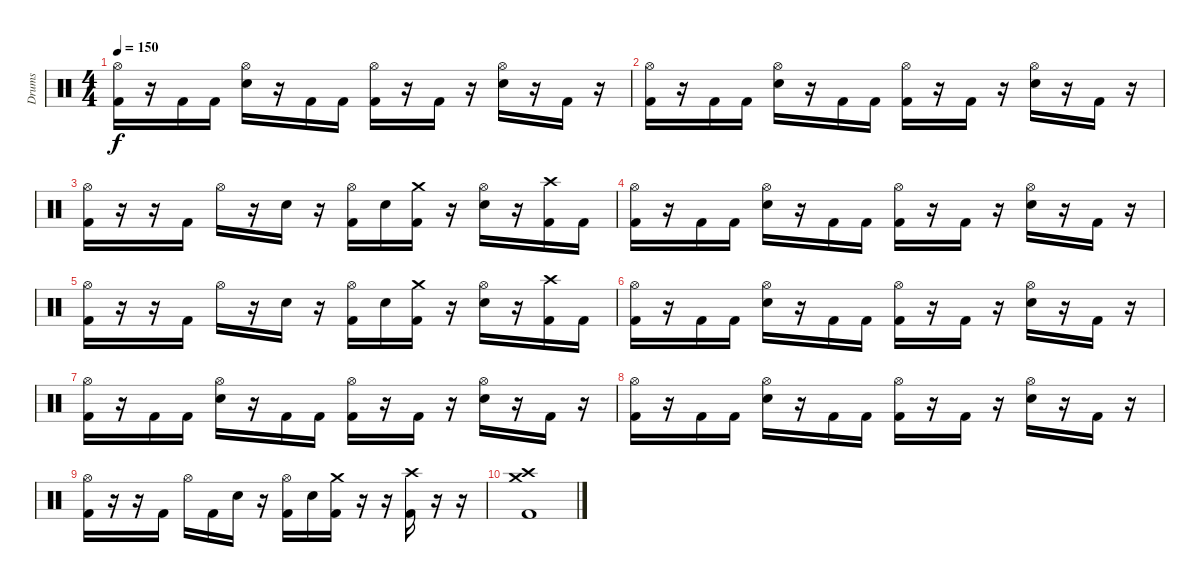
\track ("Drums" "Drums") {instrument percussion}
\staff {score}
\articulation defaults
\ts (4 4)
\tempo 150
\clef neutral
\ks c
("Hi-Hat (open)" "Kick (hit) 2").16{dy f} r.16 "Kick (hit) 2".16 "Kick (hit) 2".16 ("Hi-Hat (open)" "Snare (hit) 2").16 r.16 "Kick (hit) 2".16 "Kick (hit) 2".16 ("Hi-Hat (open)" "Kick (hit) 2").16 r.16 "Kick (hit) 2".16 r.16 ("Hi-Hat (open)" "Snare (hit) 2").16 r.16 "Kick (hit) 2".16 r.16 |
("Hi-Hat (open)" "Kick (hit) 2").16 r.16 "Kick (hit) 2".16 "Kick (hit) 2".16 ("Hi-Hat (open)" "Snare (hit) 2").16 r.16 "Kick (hit) 2".16 "Kick (hit) 2".16 ("Hi-Hat (open)" "Kick (hit) 2").16 r.16 "Kick (hit) 2".16 r.16 ("Hi-Hat (open)" "Snare (hit) 2").16 r.16 "Kick (hit) 2".16 r.16 |
("Hi-Hat (open)" "Kick (hit) 2").16 r.16 r.16 "Kick (hit) 2".16 "Hi-Hat (open)".16 r.16 "Snare (hit) 2".16 r.16 ("Hi-Hat (open)" "Kick (hit) 2").16 "Snare (hit) 2".16 ("Crash medium (hit)" "Kick (hit) 2").16 r.16 ("Hi-Hat (open)" "Snare (hit) 2").16 r.16 ("Crash high (hit)" "Kick (hit) 2").16 "Kick (hit) 2".16 |
("Hi-Hat (open)" "Kick (hit) 2").16 r.16 "Kick (hit) 2".16 "Kick (hit) 2".16 ("Hi-Hat (open)" "Snare (hit) 2").16 r.16 "Kick (hit) 2".16 "Kick (hit) 2".16 ("Hi-Hat (open)" "Kick (hit) 2").16 r.16 "Kick (hit) 2".16 r.16 ("Hi-Hat (open)" "Snare (hit) 2").16 r.16 "Kick (hit) 2".16 r.16 |
("Hi-Hat (open)" "Kick (hit) 2").16 r.16 r.16 "Kick (hit) 2".16 "Hi-Hat (open)".16 r.16 "Snare (hit) 2".16 r.16 ("Hi-Hat (open)" "Kick (hit) 2").16 "Snare (hit) 2".16 ("Crash medium (hit)" "Kick (hit) 2").16 r.16 ("Hi-Hat (open)" "Snare (hit) 2").16 r.16 ("Crash high (hit)" "Kick (hit) 2").16 "Kick (hit) 2".16 |
("Hi-Hat (open)" "Kick (hit) 2").16 r.16 "Kick (hit) 2".16 "Kick (hit) 2".16 ("Hi-Hat (open)" "Snare (hit) 2").16 r.16 "Kick (hit) 2".16 "Kick (hit) 2".16 ("Hi-Hat (open)" "Kick (hit) 2").16 r.16 "Kick (hit) 2".16 r.16 ("Hi-Hat (open)" "Snare (hit) 2").16 r.16 "Kick (hit) 2".16 r.16 |
("Hi-Hat (open)" "Kick (hit) 2").16 r.16 "Kick (hit) 2".16 "Kick (hit) 2".16 ("Hi-Hat (open)" "Snare (hit) 2").16 r.16 "Kick (hit) 2".16 "Kick (hit) 2".16 ("Hi-Hat (open)" "Kick (hit) 2").16 r.16 "Kick (hit) 2".16 r.16 ("Hi-Hat (open)" "Snare (hit) 2").16 r.16 "Kick (hit) 2".16 r.16 |
("Hi-Hat (open)" "Kick (hit) 2").16 r.16 "Kick (hit) 2".16 "Kick (hit) 2".16 ("Hi-Hat (open)" "Snare (hit) 2").16 r.16 "Kick (hit) 2".16 "Kick (hit) 2".16 ("Hi-Hat (open)" "Kick (hit) 2").16 r.16 "Kick (hit) 2".16 r.16 ("Hi-Hat (open)" "Snare (hit) 2").16 r.16 "Kick (hit) 2".16 r.16 |
("Hi-Hat (open)" "Kick (hit) 2").16 r.16 r.16 "Kick (hit) 2".16 "Hi-Hat (open)".16 "Kick (hit) 2".16 "Snare (hit) 2".16 r.16 ("Hi-Hat (open)" "Kick (hit) 2").16 "Snare (hit) 2".16 ("Crash medium (hit)" "Kick (hit) 2").16 r.16 r.16 ("Crash high (hit)" "Kick (hit) 2").16 r.16 r.16 |
("Crash high (hit)" "Crash medium (hit)" "Kick (hit) 2").1
